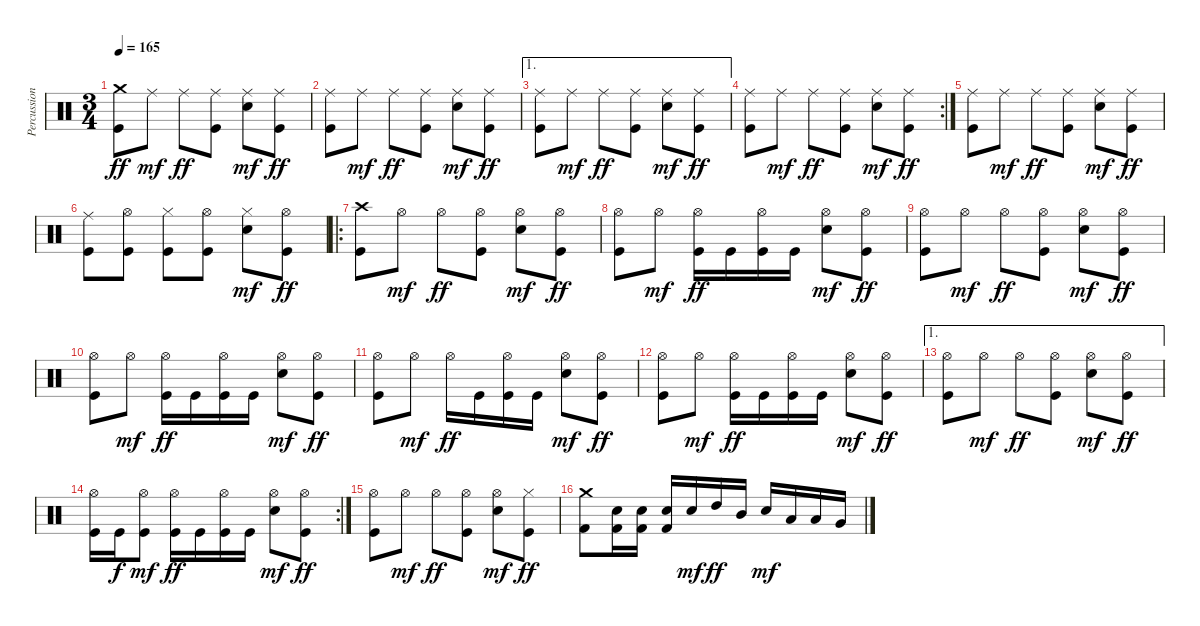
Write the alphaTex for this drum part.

\track ("Percussion" "Percussion") {instrument percussion}
\staff {score}
\articulation defaults
\ts (3 4)
\tempo 165
\clef neutral
\ks c
("Crash medium (hit)" "Kick (hit)").8{dy ff} "Ride (middle)".8{dy mf} "Ride (middle)".8{dy ff} ("Ride (middle)" "Kick (hit)").8 ("Ride (middle)" "Electric Snare (hit)").8{dy mf} ("Ride (middle)" "Kick (hit)").8{dy ff} |
("Ride (middle)" "Kick (hit)").8 "Ride (middle)".8{dy mf} "Ride (middle)".8{dy ff} ("Ride (middle)" "Kick (hit)").8 ("Ride (middle)" "Electric Snare (hit)").8{dy mf} ("Ride (middle)" "Kick (hit)").8{dy ff} |
\ae 1
("Ride (middle)" "Kick (hit)").8 "Ride (middle)".8{dy mf} "Ride (middle)".8{dy ff} ("Ride (middle)" "Kick (hit)").8 ("Ride (middle)" "Electric Snare (hit)").8{dy mf} ("Ride (middle)" "Kick (hit)").8{dy ff} |
\rc 2
("Ride (middle)" "Kick (hit)").8 "Ride (middle)".8{dy mf} "Ride (middle)".8{dy ff} ("Ride (middle)" "Kick (hit)").8 ("Ride (middle)" "Electric Snare (hit)").8{dy mf} ("Ride (middle)" "Kick (hit)").8{dy ff} |
("Ride (middle)" "Kick (hit)").8 "Ride (middle)".8{dy mf} "Ride (middle)".8{dy ff} ("Ride (middle)" "Kick (hit)").8 ("Ride (middle)" "Electric Snare (hit)").8{dy mf} ("Ride (middle)" "Kick (hit)").8{dy ff} |
("Ride (middle)" "Kick (hit)").8 ("Hi-Hat (open)" "Kick (hit)").8 ("Hi-Hat (closed)" "Kick (hit)").8 ("Hi-Hat (open)" "Kick (hit)").8 ("Hi-Hat (closed)" "Electric Snare (hit)").8{dy mf} ("Hi-Hat (open)" "Kick (hit)").8{dy ff} |
\ro
("Crash high (hit)" "Kick (hit)").8 "Hi-Hat (open)".8{dy mf} "Hi-Hat (open)".8{dy ff} ("Hi-Hat (open)" "Kick (hit)").8 ("Hi-Hat (open)" "Electric Snare (hit)").8{dy mf} ("Hi-Hat (open)" "Kick (hit)").8{dy ff} |
("Hi-Hat (open)" "Kick (hit)").8 "Hi-Hat (open)".8{dy mf} ("Hi-Hat (open)" "Kick (hit)").16{dy ff} "Kick (hit)".16 ("Hi-Hat (open)" "Kick (hit)").16 "Kick (hit)".16 ("Hi-Hat (open)" "Electric Snare (hit)").8{dy mf} ("Hi-Hat (open)" "Kick (hit)").8{dy ff} |
("Hi-Hat (open)" "Kick (hit)").8 "Hi-Hat (open)".8{dy mf} "Hi-Hat (open)".8{dy ff} ("Hi-Hat (open)" "Kick (hit)").8 ("Hi-Hat (open)" "Electric Snare (hit)").8{dy mf} ("Hi-Hat (open)" "Kick (hit)").8{dy ff} |
("Hi-Hat (open)" "Kick (hit)").8 "Hi-Hat (open)".8{dy mf} ("Hi-Hat (open)" "Kick (hit)").16{dy ff} "Kick (hit)".16 ("Hi-Hat (open)" "Kick (hit)").16 "Kick (hit)".16 ("Hi-Hat (open)" "Electric Snare (hit)").8{dy mf} ("Hi-Hat (open)" "Kick (hit)").8{dy ff} |
("Hi-Hat (open)" "Kick (hit)").8 "Hi-Hat (open)".8{dy mf} "Hi-Hat (open)".16{dy ff} "Kick (hit)".16 ("Hi-Hat (open)" "Kick (hit)").16 "Kick (hit)".16 ("Hi-Hat (open)" "Electric Snare (hit)").8{dy mf} ("Hi-Hat (open)" "Kick (hit)").8{dy ff} |
("Hi-Hat (open)" "Kick (hit)").8 "Hi-Hat (open)".8{dy mf} ("Hi-Hat (open)" "Kick (hit)").16{dy ff} "Kick (hit)".16 ("Hi-Hat (open)" "Kick (hit)").16 "Kick (hit)".16 ("Hi-Hat (open)" "Electric Snare (hit)").8{dy mf} ("Hi-Hat (open)" "Kick (hit)").8{dy ff} |
\ae 1
("Hi-Hat (open)" "Kick (hit)").8 "Hi-Hat (open)".8{dy mf} "Hi-Hat (open)".8{dy ff} ("Hi-Hat (open)" "Kick (hit)").8 ("Hi-Hat (open)" "Electric Snare (hit)").8{dy mf} ("Hi-Hat (open)" "Kick (hit)").8{dy ff} |
\rc 2
("Hi-Hat (open)" "Kick (hit)").16 "Kick (hit)".16{dy f} ("Hi-Hat (open)" "Kick (hit)").8{dy mf} ("Hi-Hat (open)" "Kick (hit)").16{dy ff} "Kick (hit)".16 ("Hi-Hat (open)" "Kick (hit)").16 "Kick (hit)".16 ("Hi-Hat (open)" "Electric Snare (hit)").8{dy mf} ("Hi-Hat (open)" "Kick (hit)").8{dy ff} |
("Hi-Hat (open)" "Kick (hit)").8 "Hi-Hat (open)".8{dy mf} "Hi-Hat (open)".8{dy ff} ("Hi-Hat (open)" "Kick (hit)").8 ("Hi-Hat (open)" "Electric Snare (hit)").8{dy mf} ("Hi-Hat (closed)" "Kick (hit)").8{dy ff} |
("Crash medium (hit)" "Kick (hit) 2").8 ("Electric Snare (hit)" "Kick (hit) 2").16 ("Electric Snare (hit)" "Kick (hit) 2").16 ("Electric Snare (hit)" "Kick (hit) 2").16 "Electric Snare (hit)".16{dy mf} "High Tom (hit)".16{dy ff} "Mid Tom (hit)".16 "Electric Snare (hit)".16{dy mf} "Low Tom (hit)".16 "Low Tom (hit)".16 "Very Low Tom (hit)".16
